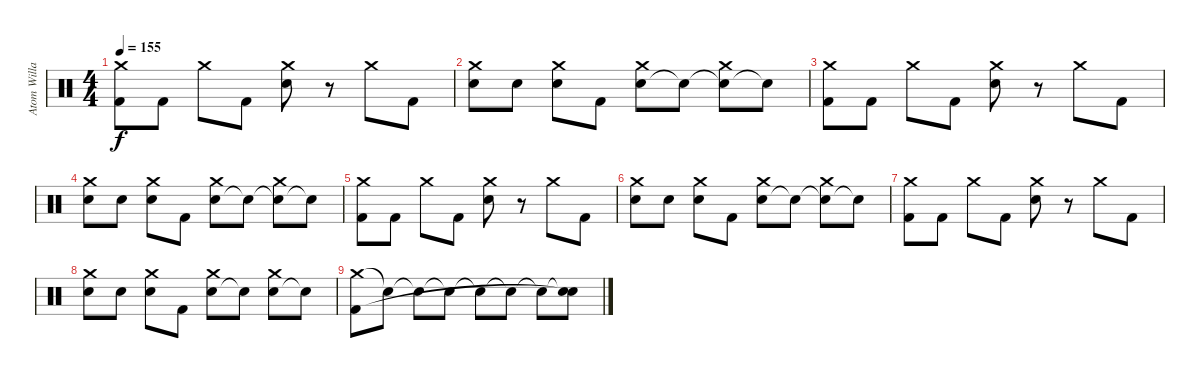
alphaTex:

\track ("Atom Willard Drums" "Atom Willa") {instrument percussion}
\staff {score}
\articulation defaults
\ts (4 4)
\tempo 155
\clef neutral
\ks c
("Kick (hit) 2" "Crash medium (hit)").8{dy f} "Kick (hit) 2".8 "Crash medium (hit)".8 "Kick (hit) 2".8 ("Electric Snare (hit)" "Crash medium (hit)").8 r.8 "Crash medium (hit)".8 "Kick (hit) 2".8 |
("Snare (hit)" "Crash medium (hit)").8 "Electric Snare (hit)".8 ("Snare (hit)" "Crash medium (hit)").8 "Kick (hit) 2".8 ("Electric Snare (hit)" "Crash medium (hit)").8 "Snare (hit)"{t}.8 ("Snare (hit)"{t} "Crash medium (hit)").8 "Snare (hit)"{t}.8 |
("Kick (hit) 2" "Crash medium (hit)").8 "Kick (hit) 2".8 "Crash medium (hit)".8 "Kick (hit) 2".8 ("Electric Snare (hit)" "Crash medium (hit)").8 r.8 "Crash medium (hit)".8 "Kick (hit) 2".8 |
("Snare (hit)" "Crash medium (hit)").8 "Electric Snare (hit)".8 ("Snare (hit)" "Crash medium (hit)").8 "Kick (hit) 2".8 ("Electric Snare (hit)" "Crash medium (hit)").8 "Snare (hit)"{t}.8 ("Snare (hit)"{t} "Crash medium (hit)").8 "Snare (hit)"{t}.8 |
("Kick (hit) 2" "Crash medium (hit)").8 "Kick (hit) 2".8 "Crash medium (hit)".8 "Kick (hit) 2".8 ("Electric Snare (hit)" "Crash medium (hit)").8 r.8 "Crash medium (hit)".8 "Kick (hit) 2".8 |
("Snare (hit)" "Crash medium (hit)").8 "Electric Snare (hit)".8 ("Snare (hit)" "Crash medium (hit)").8 "Kick (hit) 2".8 ("Electric Snare (hit)" "Crash medium (hit)").8 "Snare (hit)"{t}.8 ("Snare (hit)"{t} "Crash medium (hit)").8 "Snare (hit)"{t}.8 |
("Kick (hit) 2" "Crash medium (hit)").8 "Kick (hit) 2".8 "Crash medium (hit)".8 "Kick (hit) 2".8 ("Electric Snare (hit)" "Crash medium (hit)").8 r.8 "Crash medium (hit)".8 "Kick (hit) 2".8 |
("Snare (hit)" "Crash medium (hit)").8 "Electric Snare (hit)".8 ("Snare (hit)" "Crash medium (hit)").8 "Kick (hit) 2".8 ("Electric Snare (hit)" "Crash medium (hit)").8 "Snare (hit)"{t}.8 ("Electric Snare (hit)" "Crash medium (hit)").8 "Snare (hit)"{t}.8 |
("Crash medium (hit)" "Kick (hit) 2").8 "Snare (hit)"{t}.8 "Snare (hit)"{t}.8 "Snare (hit)"{t}.8 "Snare (hit)"{t}.8 "Snare (hit)"{t}.8 "Snare (hit)"{t}.8 ("Snare (hit)"{t} "Snare (hit)"{t}).8
